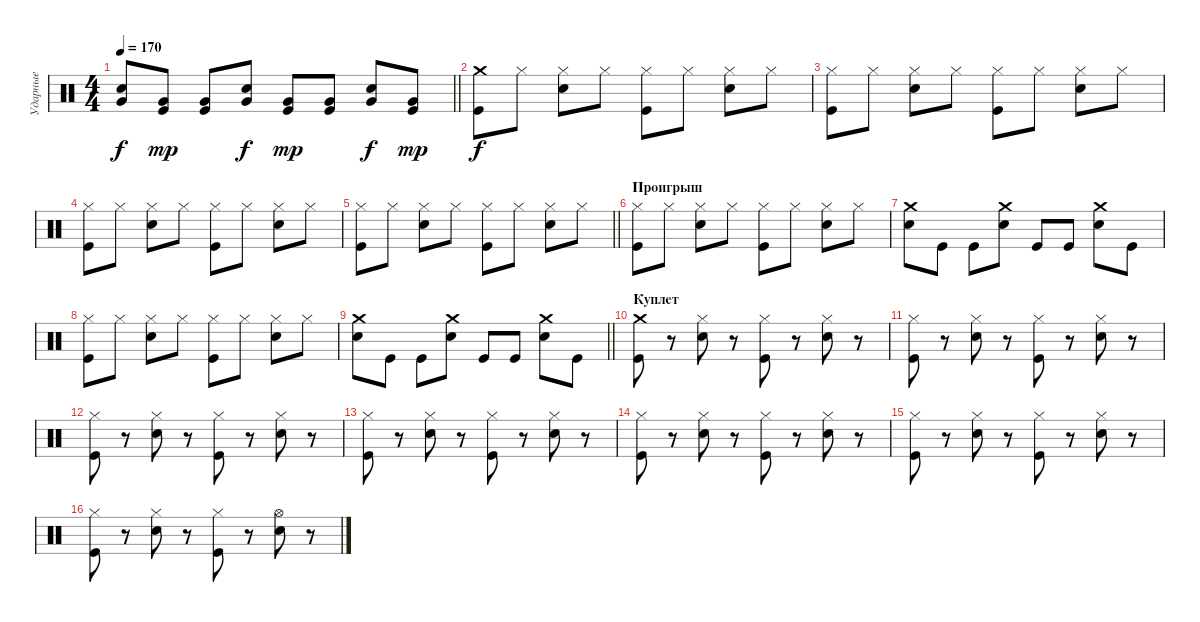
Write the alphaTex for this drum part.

\track ("Ударные" "Ударные") {instrument percussion}
\staff {score}
\articulation defaults
\ts (4 4)
\tempo 170
\clef neutral
\barLineRight lightlight
\ks c
("Electric Snare (hit)" "Very Low Tom (hit)").8{dy f} ("Kick (hit)" "Very Low Tom (hit)").8{dy mp} ("Kick (hit)" "Very Low Tom (hit)").8 ("Electric Snare (hit)" "Very Low Tom (hit)").8{dy f} ("Kick (hit)" "Very Low Tom (hit)").8{dy mp} ("Kick (hit)" "Very Low Tom (hit)").8 ("Electric Snare (hit)" "Very Low Tom (hit)").8{dy f} ("Kick (hit)" "Very Low Tom (hit)").8{dy mp} |
\section ("" " ")
("Crash medium (hit)" "Kick (hit)").8{dy f} "Hi-Hat (closed)".8 ("Hi-Hat (closed)" "Electric Snare (hit)").8 "Hi-Hat (closed)".8 ("Hi-Hat (closed)" "Kick (hit)").8 "Hi-Hat (closed)".8 ("Hi-Hat (closed)" "Electric Snare (hit)").8 "Hi-Hat (closed)".8 |
("Hi-Hat (closed)" "Kick (hit)").8 "Hi-Hat (closed)".8 ("Hi-Hat (closed)" "Electric Snare (hit)").8 "Hi-Hat (closed)".8 ("Hi-Hat (closed)" "Kick (hit)").8 "Hi-Hat (closed)".8 ("Hi-Hat (closed)" "Electric Snare (hit)").8 "Hi-Hat (closed)".8 |
("Hi-Hat (closed)" "Kick (hit)").8 "Hi-Hat (closed)".8 ("Hi-Hat (closed)" "Electric Snare (hit)").8 "Hi-Hat (closed)".8 ("Hi-Hat (closed)" "Kick (hit)").8 "Hi-Hat (closed)".8 ("Hi-Hat (closed)" "Electric Snare (hit)").8 "Hi-Hat (closed)".8 |
\barLineRight lightlight
("Hi-Hat (closed)" "Kick (hit)").8 "Hi-Hat (closed)".8 ("Hi-Hat (closed)" "Electric Snare (hit)").8 "Hi-Hat (closed)".8 ("Hi-Hat (closed)" "Kick (hit)").8 "Hi-Hat (closed)".8 ("Hi-Hat (closed)" "Electric Snare (hit)").8 "Hi-Hat (closed)".8 |
\section ("" "Проигрыш")
("Hi-Hat (closed)" "Kick (hit)").8 "Hi-Hat (closed)".8 ("Hi-Hat (closed)" "Electric Snare (hit)").8 "Hi-Hat (closed)".8 ("Hi-Hat (closed)" "Kick (hit)").8 "Hi-Hat (closed)".8 ("Hi-Hat (closed)" "Electric Snare (hit)").8 "Hi-Hat (closed)".8 |
("Crash medium (hit)" "Electric Snare (hit)").8 "Kick (hit)".8 "Kick (hit)".8 ("Crash medium (hit)" "Electric Snare (hit)").8 "Kick (hit)".8 "Kick (hit)".8 ("Crash medium (hit)" "Electric Snare (hit)").8 "Kick (hit)".8 |
("Hi-Hat (closed)" "Kick (hit)").8 "Hi-Hat (closed)".8 ("Hi-Hat (closed)" "Electric Snare (hit)").8 "Hi-Hat (closed)".8 ("Hi-Hat (closed)" "Kick (hit)").8 "Hi-Hat (closed)".8 ("Hi-Hat (closed)" "Electric Snare (hit)").8 "Hi-Hat (closed)".8 |
\barLineRight lightlight
("Crash medium (hit)" "Electric Snare (hit)").8 "Kick (hit)".8 "Kick (hit)".8 ("Crash medium (hit)" "Electric Snare (hit)").8 "Kick (hit)".8 "Kick (hit)".8 ("Crash medium (hit)" "Electric Snare (hit)").8 "Kick (hit)".8 |
\section ("" "Куплет")
("Crash medium (hit)" "Kick (hit)").8 r.8 ("Hi-Hat (closed)" "Electric Snare (hit)").8 r.8 ("Hi-Hat (closed)" "Kick (hit)").8 r.8 ("Hi-Hat (closed)" "Electric Snare (hit)").8 r.8 |
("Hi-Hat (closed)" "Kick (hit)").8 r.8 ("Hi-Hat (closed)" "Electric Snare (hit)").8 r.8 ("Hi-Hat (closed)" "Kick (hit)").8 r.8 ("Hi-Hat (closed)" "Electric Snare (hit)").8 r.8 |
("Hi-Hat (closed)" "Kick (hit)").8 r.8 ("Hi-Hat (closed)" "Electric Snare (hit)").8 r.8 ("Hi-Hat (closed)" "Kick (hit)").8 r.8 ("Hi-Hat (closed)" "Electric Snare (hit)").8 r.8 |
("Hi-Hat (closed)" "Kick (hit)").8 r.8 ("Hi-Hat (closed)" "Electric Snare (hit)").8 r.8 ("Hi-Hat (closed)" "Kick (hit)").8 r.8 ("Hi-Hat (closed)" "Electric Snare (hit)").8 r.8 |
("Hi-Hat (closed)" "Kick (hit)").8 r.8 ("Hi-Hat (closed)" "Electric Snare (hit)").8 r.8 ("Hi-Hat (closed)" "Kick (hit)").8 r.8 ("Hi-Hat (closed)" "Electric Snare (hit)").8 r.8 |
("Hi-Hat (closed)" "Kick (hit)").8 r.8 ("Hi-Hat (closed)" "Electric Snare (hit)").8 r.8 ("Hi-Hat (closed)" "Kick (hit)").8 r.8 ("Hi-Hat (closed)" "Electric Snare (hit)").8 r.8 |
("Hi-Hat (closed)" "Kick (hit)").8 r.8 ("Hi-Hat (closed)" "Electric Snare (hit)").8 r.8 ("Hi-Hat (closed)" "Kick (hit)").8 r.8 ("Hi-Hat (open)" "Electric Snare (hit)").8 r.8
